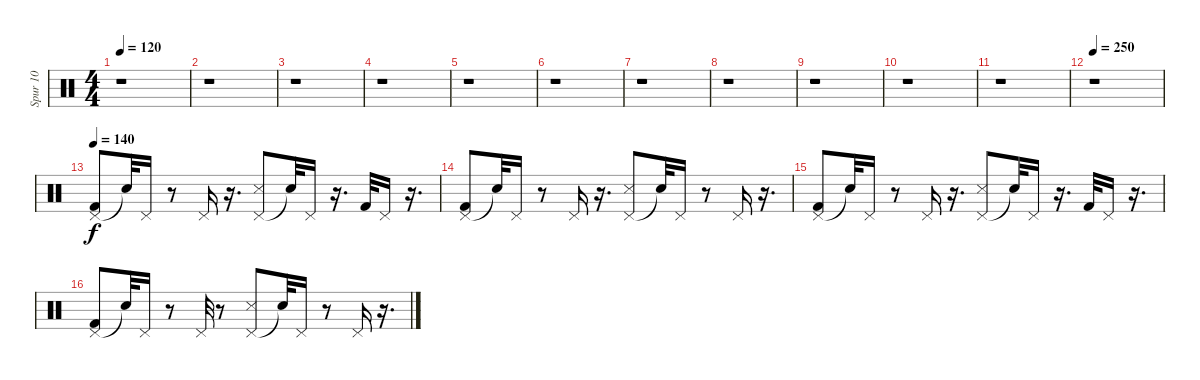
\track ("Spur 10" "Spur 10") {instrument percussion}
\staff {score}
\articulation defaults
\ts (4 4)
\tempo 120
\clef neutral
\ks c
r.1{dy f} |
r.1 |
r.1 |
r.1 |
r.1 |
r.1 |
r.1 |
r.1 |
r.1 |
r.1 |
r.1 |
\tempo 250
r.1 |
\tempo 140
("Pedal Hi-Hat (hit)" "Kick (hit) 2").8 "Snare (hit)"{t}.32 "Pedal Hi-Hat (hit)".16 r.8 "Pedal Hi-Hat (hit)".16 r.16{d} ("Pedal Hi-Hat (hit)" "Snare (side stick) 3").8 "Snare (hit)"{t}.32 "Pedal Hi-Hat (hit)".16 r.16{d} "Kick (hit) 2".32 "Pedal Hi-Hat (hit)".16 r.16{d} |
("Pedal Hi-Hat (hit)" "Kick (hit) 2").8 "Snare (hit)"{t}.32 "Pedal Hi-Hat (hit)".16 r.8 "Pedal Hi-Hat (hit)".16 r.16{d} ("Pedal Hi-Hat (hit)" "Snare (side stick) 3").8 "Snare (hit)"{t}.32 "Pedal Hi-Hat (hit)".16 r.8 "Pedal Hi-Hat (hit)".16 r.16{d} |
("Pedal Hi-Hat (hit)" "Kick (hit) 2").8 "Snare (hit)"{t}.32 "Pedal Hi-Hat (hit)".16 r.8 "Pedal Hi-Hat (hit)".16 r.16{d} ("Pedal Hi-Hat (hit)" "Snare (side stick) 3").8 "Snare (hit)"{t}.32 "Pedal Hi-Hat (hit)".16 r.16{d} "Kick (hit) 2".32 "Pedal Hi-Hat (hit)".16 r.16{d} |
("Pedal Hi-Hat (hit)" "Kick (hit) 2").8 "Snare (hit)"{t}.32 "Pedal Hi-Hat (hit)".16 r.8 "Pedal Hi-Hat (hit)".32 r.8 ("Pedal Hi-Hat (hit)" "Snare (side stick) 3").8 "Snare (hit)"{t}.32 "Pedal Hi-Hat (hit)".16 r.8 "Pedal Hi-Hat (hit)".16 r.16{d}
